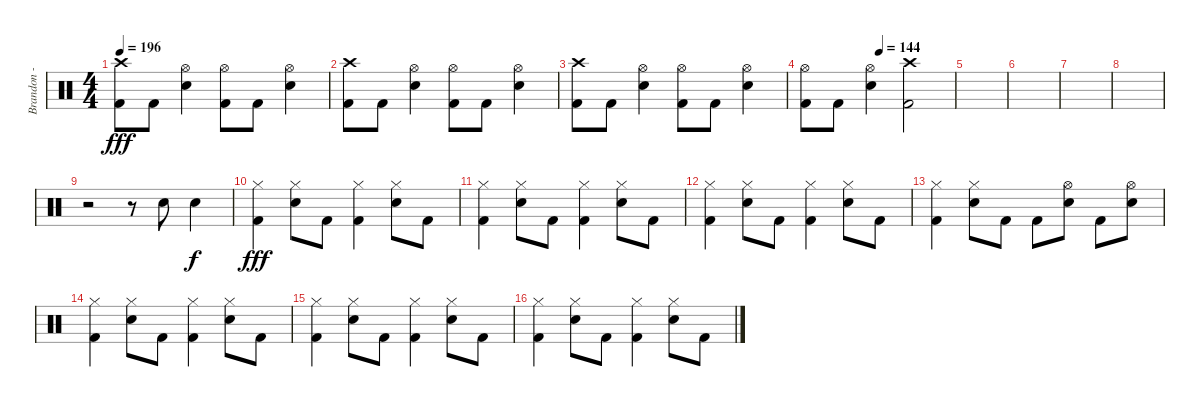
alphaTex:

\track ("Brandon - Drums" "Brandon - ") {instrument percussion}
\staff {score}
\articulation defaults
\ts (4 4)
\tempo 196
\clef neutral
\ks c
("Crash high (hit)" "Kick (hit) 2").8{dy fff} "Kick (hit) 2".8 ("Hi-Hat (open)" "Snare (hit) 2").4 ("Hi-Hat (open)" "Kick (hit) 2").8 "Kick (hit) 2".8 ("Hi-Hat (open)" "Snare (hit) 2").4 |
("Crash high (hit)" "Kick (hit) 2").8 "Kick (hit) 2".8 ("Hi-Hat (open)" "Snare (hit) 2").4 ("Hi-Hat (open)" "Kick (hit) 2").8 "Kick (hit) 2".8 ("Hi-Hat (open)" "Snare (hit) 2").4 |
("Crash high (hit)" "Kick (hit) 2").8 "Kick (hit) 2".8 ("Hi-Hat (open)" "Snare (hit) 2").4 ("Hi-Hat (open)" "Kick (hit) 2").8 "Kick (hit) 2".8 ("Hi-Hat (open)" "Snare (hit) 2").4 |
\tempo (144 0.5)
("Hi-Hat (open)" "Kick (hit) 2").8 "Kick (hit) 2".8 ("Hi-Hat (open)" "Snare (hit) 2").4 ("Crash high (hit)" "Kick (hit) 2").2 |
|
|
|
|
r.2 r.8 "Snare (hit) 2".8 "Snare (hit) 2".4{dy f} |
("Hi-Hat (closed)" "Kick (hit) 2").4{dy fff} ("Hi-Hat (closed)" "Snare (hit) 2").8 "Kick (hit) 2".8 ("Hi-Hat (closed)" "Kick (hit) 2").4 ("Hi-Hat (closed)" "Snare (hit) 2").8 "Kick (hit) 2".8 |
("Hi-Hat (closed)" "Kick (hit) 2").4 ("Hi-Hat (closed)" "Snare (hit) 2").8 "Kick (hit) 2".8 ("Hi-Hat (closed)" "Kick (hit) 2").4 ("Hi-Hat (closed)" "Snare (hit) 2").8 "Kick (hit) 2".8 |
("Hi-Hat (closed)" "Kick (hit) 2").4 ("Hi-Hat (closed)" "Snare (hit) 2").8 "Kick (hit) 2".8 ("Hi-Hat (closed)" "Kick (hit) 2").4 ("Hi-Hat (closed)" "Snare (hit) 2").8 "Kick (hit) 2".8 |
("Hi-Hat (closed)" "Kick (hit) 2").4 ("Hi-Hat (closed)" "Snare (hit) 2").8 "Kick (hit) 2".8 "Kick (hit) 2".8 ("Hi-Hat (open)" "Snare (hit) 2").8 "Kick (hit) 2".8 ("Hi-Hat (open)" "Snare (hit) 2").8 |
("Hi-Hat (closed)" "Kick (hit) 2").4 ("Hi-Hat (closed)" "Snare (hit) 2").8 "Kick (hit) 2".8 ("Hi-Hat (closed)" "Kick (hit) 2").4 ("Hi-Hat (closed)" "Snare (hit) 2").8 "Kick (hit) 2".8 |
("Hi-Hat (closed)" "Kick (hit) 2").4 ("Hi-Hat (closed)" "Snare (hit) 2").8 "Kick (hit) 2".8 ("Hi-Hat (closed)" "Kick (hit) 2").4 ("Hi-Hat (closed)" "Snare (hit) 2").8 "Kick (hit) 2".8 |
("Hi-Hat (closed)" "Kick (hit) 2").4 ("Hi-Hat (closed)" "Snare (hit) 2").8 "Kick (hit) 2".8 ("Hi-Hat (closed)" "Kick (hit) 2").4 ("Hi-Hat (closed)" "Snare (hit) 2").8 "Kick (hit) 2".8
